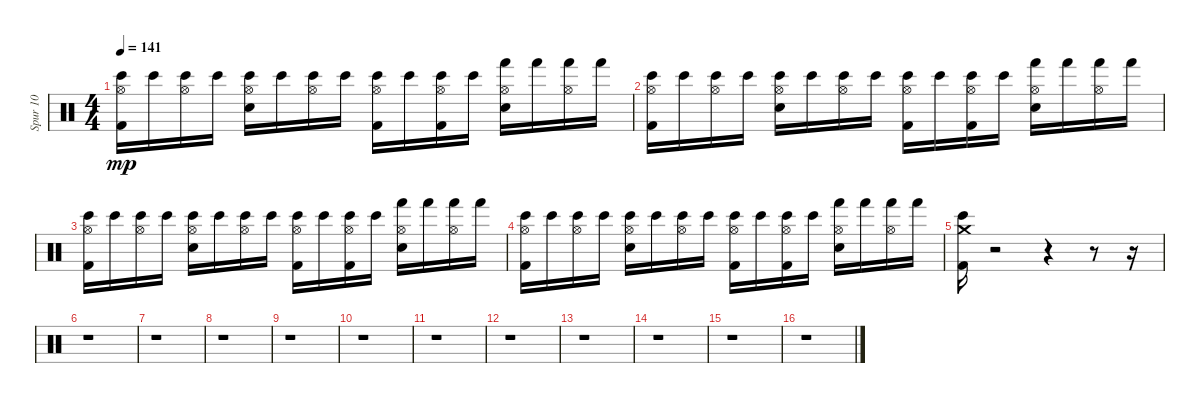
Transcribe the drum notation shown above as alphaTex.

\track ("Spur 10" "Spur 10") {instrument percussion}
\staff {score}
\articulation defaults
\ts (4 4)
\tempo 141
\clef neutral
\ks c
("Bongo High (hit)" "Kick (hit) 2" "Hi-Hat (open)").16{dy mp} "Bongo High (hit)".16 ("Bongo High (hit)" "Hi-Hat (open)").16 "Bongo High (hit)".16 ("Bongo High (hit)" "Snare (hit) 2" "Hi-Hat (open)").16 "Bongo High (hit)".16 ("Bongo High (hit)" "Hi-Hat (open)").16 "Bongo High (hit)".16 ("Bongo High (hit)" "Kick (hit) 2" "Hi-Hat (open)").16 "Bongo High (hit)".16 ("Bongo High (hit)" "Kick (hit) 2" "Hi-Hat (open)").16 "Bongo High (hit)".16 ("Hand (hit)" "Snare (hit) 2" "Hi-Hat (open)").16 "Hand (hit)".16 ("Hand (hit)" "Hi-Hat (open)").16 "Hand (hit)".16 |
("Bongo High (hit)" "Kick (hit) 2" "Hi-Hat (open)").16 "Bongo High (hit)".16 ("Bongo High (hit)" "Hi-Hat (open)").16 "Bongo High (hit)".16 ("Bongo High (hit)" "Snare (hit) 2" "Hi-Hat (open)").16 "Bongo High (hit)".16 ("Bongo High (hit)" "Hi-Hat (open)").16 "Bongo High (hit)".16 ("Bongo High (hit)" "Kick (hit) 2" "Hi-Hat (open)").16 "Bongo High (hit)".16 ("Bongo High (hit)" "Kick (hit) 2" "Hi-Hat (open)").16 "Bongo High (hit)".16 ("Hand (hit)" "Snare (hit) 2" "Hi-Hat (open)").16 "Hand (hit)".16 ("Hand (hit)" "Hi-Hat (open)").16 "Hand (hit)".16 |
("Bongo High (hit)" "Kick (hit) 2" "Hi-Hat (open)").16 "Bongo High (hit)".16 ("Bongo High (hit)" "Hi-Hat (open)").16 "Bongo High (hit)".16 ("Bongo High (hit)" "Snare (hit) 2" "Hi-Hat (open)").16 "Bongo High (hit)".16 ("Bongo High (hit)" "Hi-Hat (open)").16 "Bongo High (hit)".16 ("Bongo High (hit)" "Kick (hit) 2" "Hi-Hat (open)").16 "Bongo High (hit)".16 ("Bongo High (hit)" "Kick (hit) 2" "Hi-Hat (open)").16 "Bongo High (hit)".16 ("Hand (hit)" "Snare (hit) 2" "Hi-Hat (open)").16 "Hand (hit)".16 ("Hand (hit)" "Hi-Hat (open)").16 "Hand (hit)".16 |
("Bongo High (hit)" "Kick (hit) 2" "Hi-Hat (open)").16 "Bongo High (hit)".16 ("Bongo High (hit)" "Hi-Hat (open)").16 "Bongo High (hit)".16 ("Bongo High (hit)" "Snare (hit) 2" "Hi-Hat (open)").16 "Bongo High (hit)".16 ("Bongo High (hit)" "Hi-Hat (open)").16 "Bongo High (hit)".16 ("Bongo High (hit)" "Kick (hit) 2" "Hi-Hat (open)").16 "Bongo High (hit)".16 ("Bongo High (hit)" "Kick (hit) 2" "Hi-Hat (open)").16 "Bongo High (hit)".16 ("Hand (hit)" "Snare (hit) 2" "Hi-Hat (open)").16 "Hand (hit)".16 ("Hand (hit)" "Hi-Hat (open)").16 "Hand (hit)".16 |
("Bongo High (hit)" "Kick (hit) 2" "Crash medium (hit)").16 r.2 r.4 r.8 r.16 |
r.1 |
r.1 |
r.1 |
r.1 |
r.1 |
r.1 |
r.1 |
r.1 |
r.1 |
r.1 |
r.1
